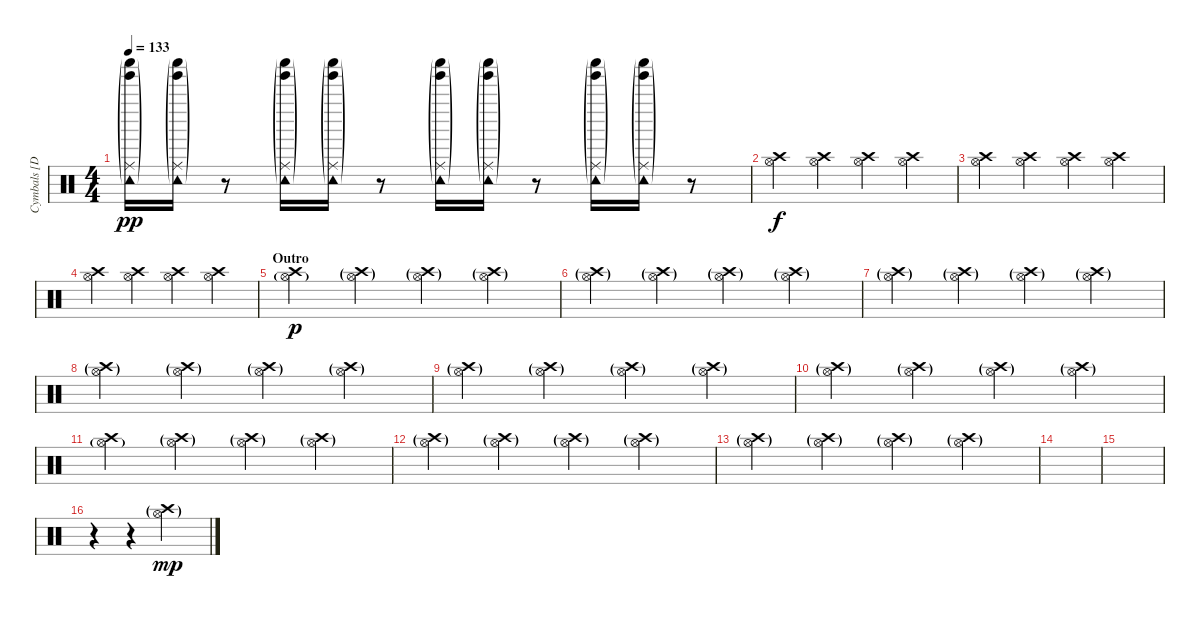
\track ("Cymbals [Dave Grohl]" "Cymbals [D") {instrument percussion}
\staff {score}
\articulation defaults
\ts (4 4)
\tempo 133
\clef neutral
\ks c
("Ride (middle)"{g} "Tambourine (hit)"{g} "Tinkle Bell (hit)"{g} "Shaker (hit)"{g}).16{dy pp volume 6 balance 4} ("Ride (middle)"{g} "Tambourine (hit)"{g} "Tinkle Bell (hit)"{g} "Shaker (hit)"{g}).16 r.8 ("Ride (middle)"{g} "Tambourine (hit)"{g} "Tinkle Bell (hit)"{g} "Shaker (hit)"{g}).16{balance 12} ("Ride (middle)"{g} "Tambourine (hit)"{g} "Tinkle Bell (hit)"{g} "Shaker (hit)"{g}).16 r.8 ("Ride (middle)"{g} "Tambourine (hit)"{g} "Tinkle Bell (hit)"{g} "Shaker (hit)"{g}).16{balance 4} ("Ride (middle)"{g} "Tambourine (hit)"{g} "Tinkle Bell (hit)"{g} "Shaker (hit)"{g}).16 r.8 ("Ride (middle)"{g} "Tambourine (hit)"{g} "Tinkle Bell (hit)"{g} "Shaker (hit)"{g}).16{balance 12} ("Ride (middle)"{g} "Tambourine (hit)"{g} "Tinkle Bell (hit)"{g} "Shaker (hit)"{g}).16 r.8 |
("Hi-Hat (open)" "Crash high (hit)").4{dy f volume 11 balance 8} ("Hi-Hat (open)" "Crash high (hit)").4 ("Hi-Hat (open)" "Crash high (hit)").4 ("Hi-Hat (open)" "Crash high (hit)").4 |
("Hi-Hat (open)" "Crash high (hit)").4 ("Hi-Hat (open)" "Crash high (hit)").4 ("Hi-Hat (open)" "Crash high (hit)").4 ("Hi-Hat (open)" "Crash high (hit)").4 |
("Hi-Hat (open)" "Crash high (hit)").4 ("Hi-Hat (open)" "Crash high (hit)").4 ("Hi-Hat (open)" "Crash high (hit)").4 ("Hi-Hat (open)" "Crash high (hit)").4 |
\section ("" "Outro")
("Hi-Hat (open)"{g} "Crash high (hit)").4{dy p} ("Hi-Hat (open)"{g} "Crash high (hit)"{g}).4 ("Hi-Hat (open)"{g} "Crash high (hit)"{g}).4 ("Hi-Hat (open)"{g} "Crash high (hit)"{g}).4 |
("Hi-Hat (open)"{g} "Crash high (hit)"{g}).4 ("Hi-Hat (open)"{g} "Crash high (hit)"{g}).4 ("Hi-Hat (open)"{g} "Crash high (hit)"{g}).4 ("Hi-Hat (open)"{g} "Crash high (hit)"{g}).4 |
("Hi-Hat (open)"{g} "Crash high (hit)"{g}).4 ("Hi-Hat (open)"{g} "Crash high (hit)"{g}).4 ("Hi-Hat (open)"{g} "Crash high (hit)"{g}).4 ("Hi-Hat (open)"{g} "Crash high (hit)"{g}).4 |
("Hi-Hat (open)"{g} "Crash high (hit)"{g}).4 ("Hi-Hat (open)"{g} "Crash high (hit)"{g}).4 ("Hi-Hat (open)"{g} "Crash high (hit)"{g}).4 ("Hi-Hat (open)"{g} "Crash high (hit)"{g}).4 |
("Hi-Hat (open)"{g} "Crash high (hit)"{g}).4 ("Hi-Hat (open)"{g} "Crash high (hit)"{g}).4 ("Hi-Hat (open)"{g} "Crash high (hit)"{g}).4 ("Hi-Hat (open)"{g} "Crash high (hit)"{g}).4 |
("Hi-Hat (open)"{g} "Crash high (hit)"{g}).4 ("Hi-Hat (open)"{g} "Crash high (hit)"{g}).4 ("Hi-Hat (open)"{g} "Crash high (hit)"{g}).4 ("Hi-Hat (open)"{g} "Crash high (hit)"{g}).4 |
("Hi-Hat (open)"{g} "Crash high (hit)").4 ("Hi-Hat (open)"{g} "Crash high (hit)"{g}).4 ("Hi-Hat (open)"{g} "Crash high (hit)"{g}).4 ("Hi-Hat (open)"{g} "Crash high (hit)"{g}).4 |
("Hi-Hat (open)"{g} "Crash high (hit)"{g}).4 ("Hi-Hat (open)"{g} "Crash high (hit)"{g}).4 ("Hi-Hat (open)"{g} "Crash high (hit)"{g}).4 ("Hi-Hat (open)"{g} "Crash high (hit)"{g}).4 |
("Hi-Hat (open)"{g} "Crash high (hit)"{g}).4 ("Hi-Hat (open)"{g} "Crash high (hit)"{g}).4 ("Hi-Hat (open)"{g} "Crash high (hit)"{g}).4 ("Hi-Hat (open)"{g} "Crash high (hit)"{g}).4 |
|
|
r.4 r.4 ("Crash high (hit)"{g} "Hi-Hat (open)"{g}).2{dy mp}
